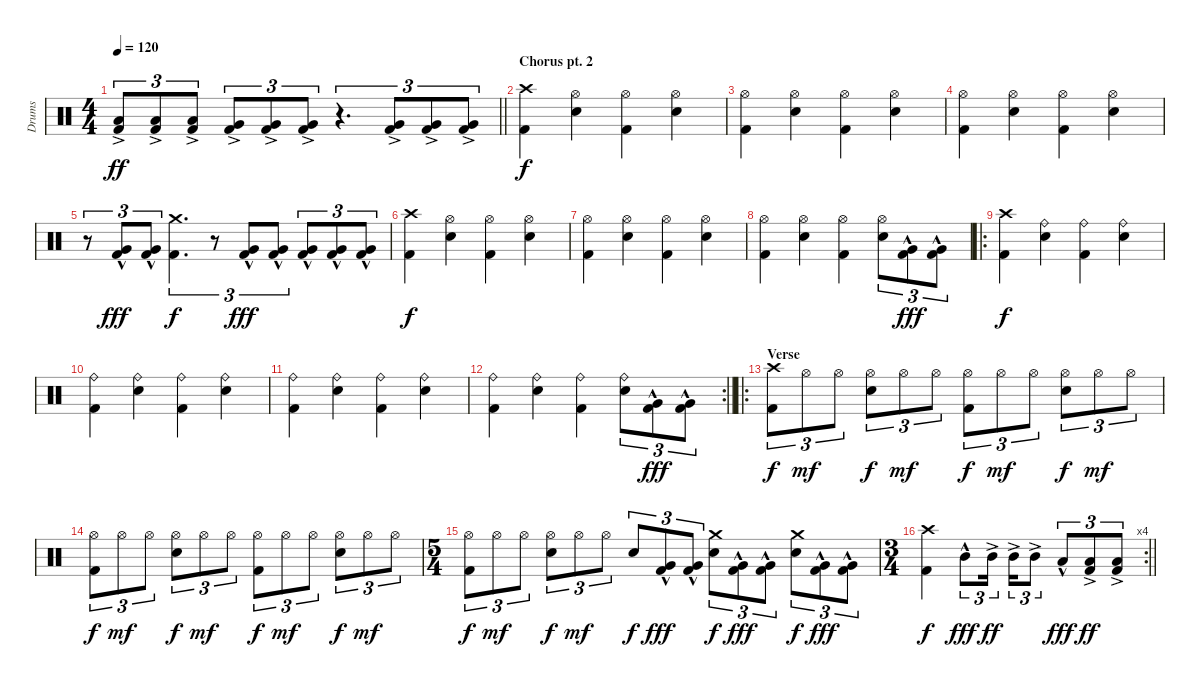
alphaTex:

\track ("Drums" "Drums") {instrument percussion}
\staff {score}
\articulation defaults
\ts (4 4)
\tempo 120
\clef neutral
\barLineRight lightlight
\ks c
("Low Tom (hit)"{ac} "Kick (hit) 2").8{tu (3 2) dy ff} ("Low Tom (hit)"{ac} "Kick (hit) 2").8{tu (3 2)} ("Low Tom (hit)"{ac} "Kick (hit) 2").8{tu (3 2)} ("Very Low Tom (hit)"{ac} "Kick (hit) 2").8{tu (3 2)} ("Very Low Tom (hit)"{ac} "Kick (hit) 2").8{tu (3 2)} ("Very Low Tom (hit)"{ac} "Kick (hit) 2").8{tu (3 2)} r.4{d tu (3 2)} ("Very Low Tom (hit)"{ac} "Kick (hit) 2").8{tu (3 2)} ("Very Low Tom (hit)"{ac} "Kick (hit) 2").8{tu (3 2)} ("Very Low Tom (hit)"{ac} "Kick (hit) 2").8{tu (3 2)} |
\section ("" "Chorus pt. 2")
("Crash high (hit)" "Kick (hit) 2").4{dy f} ("Hi-Hat (open)" "Snare (hit) 2").4 ("Hi-Hat (open)" "Kick (hit) 2").4 ("Hi-Hat (open)" "Snare (hit) 2").4 |
("Hi-Hat (open)" "Kick (hit) 2").4 ("Hi-Hat (open)" "Snare (hit) 2").4 ("Hi-Hat (open)" "Kick (hit) 2").4 ("Hi-Hat (open)" "Snare (hit) 2").4 |
("Hi-Hat (open)" "Kick (hit) 2").4 ("Hi-Hat (open)" "Snare (hit) 2").4 ("Hi-Hat (open)" "Kick (hit) 2").4 ("Hi-Hat (open)" "Snare (hit) 2").4 |
r.8{tu (3 2)} ("Very Low Tom (hit)"{hac} "Kick (hit) 2").8{tu (3 2) dy fff} ("Very Low Tom (hit)"{hac} "Kick (hit) 2").8{tu (3 2)} ("Crash medium (hit)" "Kick (hit) 2").4{d tu (3 2) dy f} r.8{tu (3 2)} ("Very Low Tom (hit)"{hac} "Kick (hit) 2").8{tu (3 2) dy fff} ("Very Low Tom (hit)"{hac} "Kick (hit) 2").8{tu (3 2)} ("Very Low Tom (hit)"{hac} "Kick (hit) 2").8{tu (3 2)} ("Very Low Tom (hit)"{hac} "Kick (hit) 2").8{tu (3 2)} ("Very Low Tom (hit)"{hac} "Kick (hit) 2").8{tu (3 2)} |
("Crash high (hit)" "Kick (hit) 2").4{dy f} ("Hi-Hat (open)" "Snare (hit) 2").4 ("Hi-Hat (open)" "Kick (hit) 2").4 ("Hi-Hat (open)" "Snare (hit) 2").4 |
("Hi-Hat (open)" "Kick (hit) 2").4 ("Hi-Hat (open)" "Snare (hit) 2").4 ("Hi-Hat (open)" "Kick (hit) 2").4 ("Hi-Hat (open)" "Snare (hit) 2").4 |
("Hi-Hat (open)" "Kick (hit) 2").4 ("Hi-Hat (open)" "Snare (hit) 2").4 ("Hi-Hat (open)" "Kick (hit) 2").4 ("Hi-Hat (open)" "Snare (hit) 2").8{tu (3 2)} ("Very Low Tom (hit)"{hac} "Kick (hit) 2").8{tu (3 2) dy fff} ("Very Low Tom (hit)"{hac} "Kick (hit) 2").8{tu (3 2)} |
\ro
("Crash high (hit)" "Kick (hit) 2").4{dy f} ("Ride (bell)" "Snare (hit) 2").4 ("Ride (bell)" "Kick (hit) 2").4 ("Ride (bell)" "Snare (hit) 2").4 |
("Ride (bell)" "Kick (hit) 2").4 ("Ride (bell)" "Snare (hit) 2").4 ("Ride (bell)" "Kick (hit) 2").4 ("Ride (bell)" "Snare (hit) 2").4 |
("Ride (bell)" "Kick (hit) 2").4 ("Ride (bell)" "Snare (hit) 2").4 ("Ride (bell)" "Kick (hit) 2").4 ("Ride (bell)" "Snare (hit) 2").4 |
\rc 2
\barLineRight lightlight
("Ride (bell)" "Kick (hit) 2").4 ("Ride (bell)" "Snare (hit) 2").4 ("Ride (bell)" "Kick (hit) 2").4 ("Ride (bell)" "Snare (hit) 2").8{tu (3 2)} ("Very Low Tom (hit)"{hac} "Kick (hit) 2"{hac}).8{tu (3 2) dy fff} ("Very Low Tom (hit)"{hac} "Kick (hit) 2"{hac}).8{tu (3 2)} |
\ro
\section ("" "Verse")
("Crash high (hit)" "Kick (hit) 2").8{tu (3 2) dy f} "Hi-Hat (open)".8{tu (3 2) dy mf} "Hi-Hat (open)".8{tu (3 2)} ("Hi-Hat (open)" "Snare (hit) 2").8{tu (3 2) dy f} "Hi-Hat (open)".8{tu (3 2) dy mf} "Hi-Hat (open)".8{tu (3 2)} ("Hi-Hat (open)" "Kick (hit) 2").8{tu (3 2) dy f} "Hi-Hat (open)".8{tu (3 2) dy mf} "Hi-Hat (open)".8{tu (3 2)} ("Hi-Hat (open)" "Snare (hit) 2").8{tu (3 2) dy f} "Hi-Hat (open)".8{tu (3 2) dy mf} "Hi-Hat (open)".8{tu (3 2)} |
("Hi-Hat (open)" "Kick (hit) 2").8{tu (3 2) dy f} "Hi-Hat (open)".8{tu (3 2) dy mf} "Hi-Hat (open)".8{tu (3 2)} ("Hi-Hat (open)" "Snare (hit) 2").8{tu (3 2) dy f} "Hi-Hat (open)".8{tu (3 2) dy mf} "Hi-Hat (open)".8{tu (3 2)} ("Hi-Hat (open)" "Kick (hit) 2").8{tu (3 2) dy f} "Hi-Hat (open)".8{tu (3 2) dy mf} "Hi-Hat (open)".8{tu (3 2)} ("Hi-Hat (open)" "Snare (hit) 2").8{tu (3 2) dy f} "Hi-Hat (open)".8{tu (3 2) dy mf} "Hi-Hat (open)".8{tu (3 2)} |
\ts (5 4)
("Hi-Hat (open)" "Kick (hit) 2").8{tu (3 2) dy f} "Hi-Hat (open)".8{tu (3 2) dy mf} "Hi-Hat (open)".8{tu (3 2)} ("Hi-Hat (open)" "Snare (hit) 2").8{tu (3 2) dy f} "Hi-Hat (open)".8{tu (3 2) dy mf} "Hi-Hat (open)".8{tu (3 2)} "Snare (hit) 2".8{tu (3 2) dy f} ("Very Low Tom (hit)"{hac} "Kick (hit) 2").8{tu (3 2) dy fff} ("Very Low Tom (hit)"{hac} "Kick (hit) 2").8{tu (3 2)} ("Crash medium (hit)" "Snare (hit) 2").8{tu (3 2) dy f} ("Very Low Tom (hit)"{hac} "Kick (hit) 2").8{tu (3 2) dy fff} ("Very Low Tom (hit)"{hac} "Kick (hit) 2").8{tu (3 2)} ("Crash medium (hit)" "Snare (hit) 2").8{tu (3 2) dy f} ("Very Low Tom (hit)"{hac} "Kick (hit) 2").8{tu (3 2) dy fff} ("Very Low Tom (hit)"{hac} "Kick (hit) 2").8{tu (3 2)} |
\rc 4
\ts (3 4)
\barLineRight lightlight
("Crash high (hit)" "Kick (hit) 2").4{dy f} "Mid Tom (hit)"{hac}.8{tu (3 2) dy fff} "Mid Tom (hit)"{ac}.16{tu (3 2) dy ff beam splitsecondary} "Mid Tom (hit)"{ac}.16{tu (3 2)} "Mid Tom (hit)"{ac}.8{tu (3 2)} "Low Tom (hit)"{hac}.8{tu (3 2) dy fff} ("Low Tom (hit)"{ac} "Kick (hit) 2").8{tu (3 2) dy ff} ("Low Tom (hit)"{ac} "Kick (hit) 2").8{tu (3 2)}
